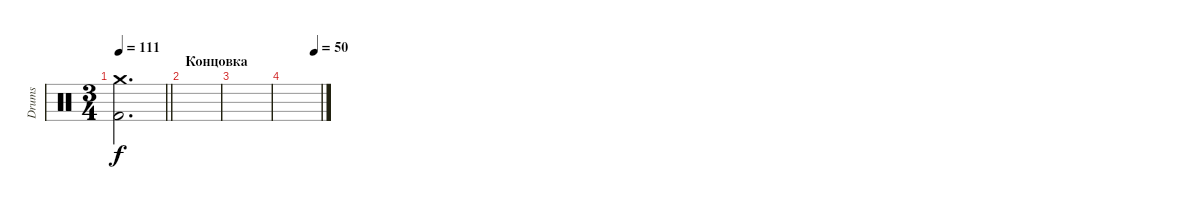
\track ("Drums" "Drums") {instrument percussion}
\staff {score}
\articulation defaults
\ts (3 4)
\tempo 111
\clef neutral
\barLineRight lightlight
\ks c
("Crash medium (hit)" "Kick (hit) 2").2{d dy f} |
\section ("" "Концовка")
|
|
\tempo (50 0.8333333333333334)
